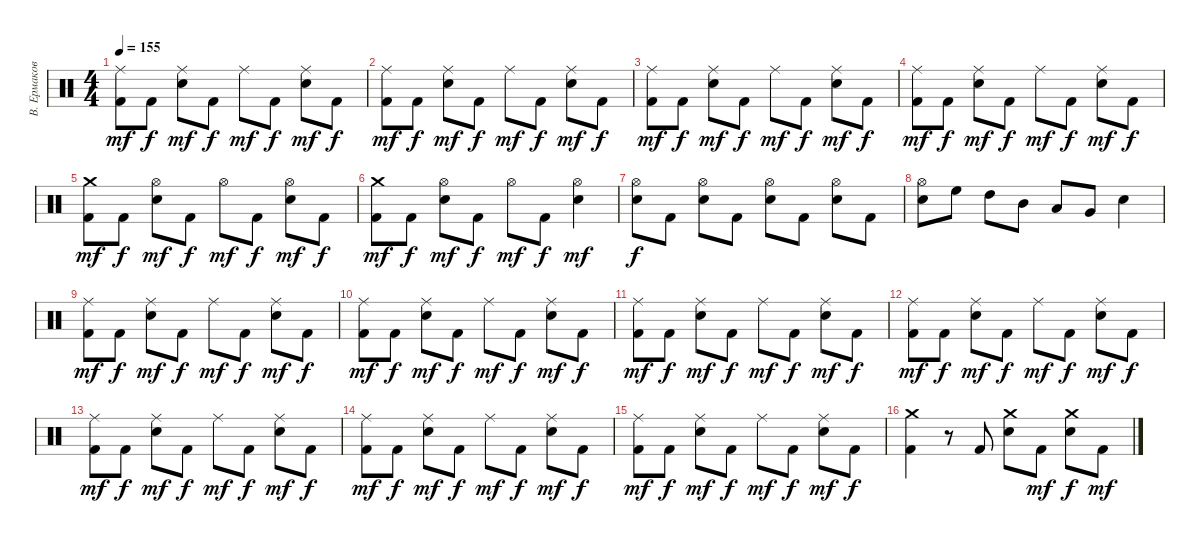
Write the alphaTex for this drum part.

\track ("В. Ермаков" "В. Ермаков") {instrument percussion}
\staff {score}
\articulation defaults
\ts (4 4)
\tempo 155
\clef neutral
\ks c
("Ride (middle)" "Kick (hit) 2").8{dy mf} "Kick (hit) 2".8{dy f} ("Ride (middle)" "Electric Snare (hit)").8{dy mf} "Kick (hit) 2".8{dy f} "Ride (middle)".8{dy mf} "Kick (hit) 2".8{dy f} ("Ride (middle)" "Electric Snare (hit)").8{dy mf} "Kick (hit) 2".8{dy f} |
("Ride (middle)" "Kick (hit) 2").8{dy mf} "Kick (hit) 2".8{dy f} ("Ride (middle)" "Electric Snare (hit)").8{dy mf} "Kick (hit) 2".8{dy f} "Ride (middle)".8{dy mf} "Kick (hit) 2".8{dy f} ("Ride (middle)" "Electric Snare (hit)").8{dy mf} "Kick (hit) 2".8{dy f} |
("Ride (middle)" "Kick (hit) 2").8{dy mf} "Kick (hit) 2".8{dy f} ("Ride (middle)" "Electric Snare (hit)").8{dy mf} "Kick (hit) 2".8{dy f} "Ride (middle)".8{dy mf} "Kick (hit) 2".8{dy f} ("Ride (middle)" "Electric Snare (hit)").8{dy mf} "Kick (hit) 2".8{dy f} |
("Ride (middle)" "Kick (hit) 2").8{dy mf} "Kick (hit) 2".8{dy f} ("Ride (middle)" "Electric Snare (hit)").8{dy mf} "Kick (hit) 2".8{dy f} "Ride (middle)".8{dy mf} "Kick (hit) 2".8{dy f} ("Ride (middle)" "Electric Snare (hit)").8{dy mf} "Kick (hit) 2".8{dy f} |
("Crash medium (hit)" "Kick (hit) 2").8{dy mf} "Kick (hit) 2".8{dy f} ("Hi-Hat (open)" "Electric Snare (hit)").8{dy mf} "Kick (hit) 2".8{dy f} "Hi-Hat (open)".8{dy mf} "Kick (hit) 2".8{dy f} ("Hi-Hat (open)" "Electric Snare (hit)").8{dy mf} "Kick (hit) 2".8{dy f} |
("Crash medium (hit)" "Kick (hit) 2").8{dy mf} "Kick (hit) 2".8{dy f} ("Hi-Hat (open)" "Electric Snare (hit)").8{dy mf} "Kick (hit) 2".8{dy f} "Hi-Hat (open)".8{dy mf} "Kick (hit) 2".8{dy f} ("Hi-Hat (open)" "Electric Snare (hit)").4{dy mf} |
("Hi-Hat (open)" "Electric Snare (hit)").8{dy f} "Kick (hit) 2".8 ("Hi-Hat (open)" "Electric Snare (hit)").8 "Kick (hit) 2".8 ("Hi-Hat (open)" "Electric Snare (hit)").8 "Kick (hit) 2".8 ("Hi-Hat (open)" "Electric Snare (hit)").8 "Kick (hit) 2".8 |
("Hi-Hat (open)" "Electric Snare (hit)").8 "High Floor Tom (hit)".8 "High Tom (hit)".8 "Mid Tom (hit)".8 "Low Tom (hit)".8 "Very Low Tom (hit)".8 "Electric Snare (hit)".4 |
("Ride (middle)" "Kick (hit) 2").8{dy mf} "Kick (hit) 2".8{dy f} ("Ride (middle)" "Electric Snare (hit)").8{dy mf} "Kick (hit) 2".8{dy f} "Ride (middle)".8{dy mf} "Kick (hit) 2".8{dy f} ("Ride (middle)" "Electric Snare (hit)").8{dy mf} "Kick (hit) 2".8{dy f} |
("Ride (middle)" "Kick (hit) 2").8{dy mf} "Kick (hit) 2".8{dy f} ("Ride (middle)" "Electric Snare (hit)").8{dy mf} "Kick (hit) 2".8{dy f} "Ride (middle)".8{dy mf} "Kick (hit) 2".8{dy f} ("Ride (middle)" "Electric Snare (hit)").8{dy mf} "Kick (hit) 2".8{dy f} |
("Ride (middle)" "Kick (hit) 2").8{dy mf} "Kick (hit) 2".8{dy f} ("Ride (middle)" "Electric Snare (hit)").8{dy mf} "Kick (hit) 2".8{dy f} "Ride (middle)".8{dy mf} "Kick (hit) 2".8{dy f} ("Ride (middle)" "Electric Snare (hit)").8{dy mf} "Kick (hit) 2".8{dy f} |
("Ride (middle)" "Kick (hit) 2").8{dy mf} "Kick (hit) 2".8{dy f} ("Ride (middle)" "Electric Snare (hit)").8{dy mf} "Kick (hit) 2".8{dy f} "Ride (middle)".8{dy mf} "Kick (hit) 2".8{dy f} ("Ride (middle)" "Electric Snare (hit)").8{dy mf} "Kick (hit) 2".8{dy f} |
("Ride (middle)" "Kick (hit) 2").8{dy mf} "Kick (hit) 2".8{dy f} ("Ride (middle)" "Electric Snare (hit)").8{dy mf} "Kick (hit) 2".8{dy f} "Ride (middle)".8{dy mf} "Kick (hit) 2".8{dy f} ("Ride (middle)" "Electric Snare (hit)").8{dy mf} "Kick (hit) 2".8{dy f} |
("Ride (middle)" "Kick (hit) 2").8{dy mf} "Kick (hit) 2".8{dy f} ("Ride (middle)" "Electric Snare (hit)").8{dy mf} "Kick (hit) 2".8{dy f} "Ride (middle)".8{dy mf} "Kick (hit) 2".8{dy f} ("Ride (middle)" "Electric Snare (hit)").8{dy mf} "Kick (hit) 2".8{dy f} |
("Ride (middle)" "Kick (hit) 2").8{dy mf} "Kick (hit) 2".8{dy f} ("Ride (middle)" "Electric Snare (hit)").8{dy mf} "Kick (hit) 2".8{dy f} "Ride (middle)".8{dy mf} "Kick (hit) 2".8{dy f} ("Ride (middle)" "Electric Snare (hit)").8{dy mf} "Kick (hit) 2".8{dy f} |
("Crash medium (hit)" "Kick (hit) 2").4 r.8 "Kick (hit) 2".8 ("Electric Snare (hit)" "Crash medium (hit)").8 "Kick (hit) 2".8{dy mf} ("Electric Snare (hit)" "Crash medium (hit)").8{dy f} "Kick (hit) 2".8{dy mf}
